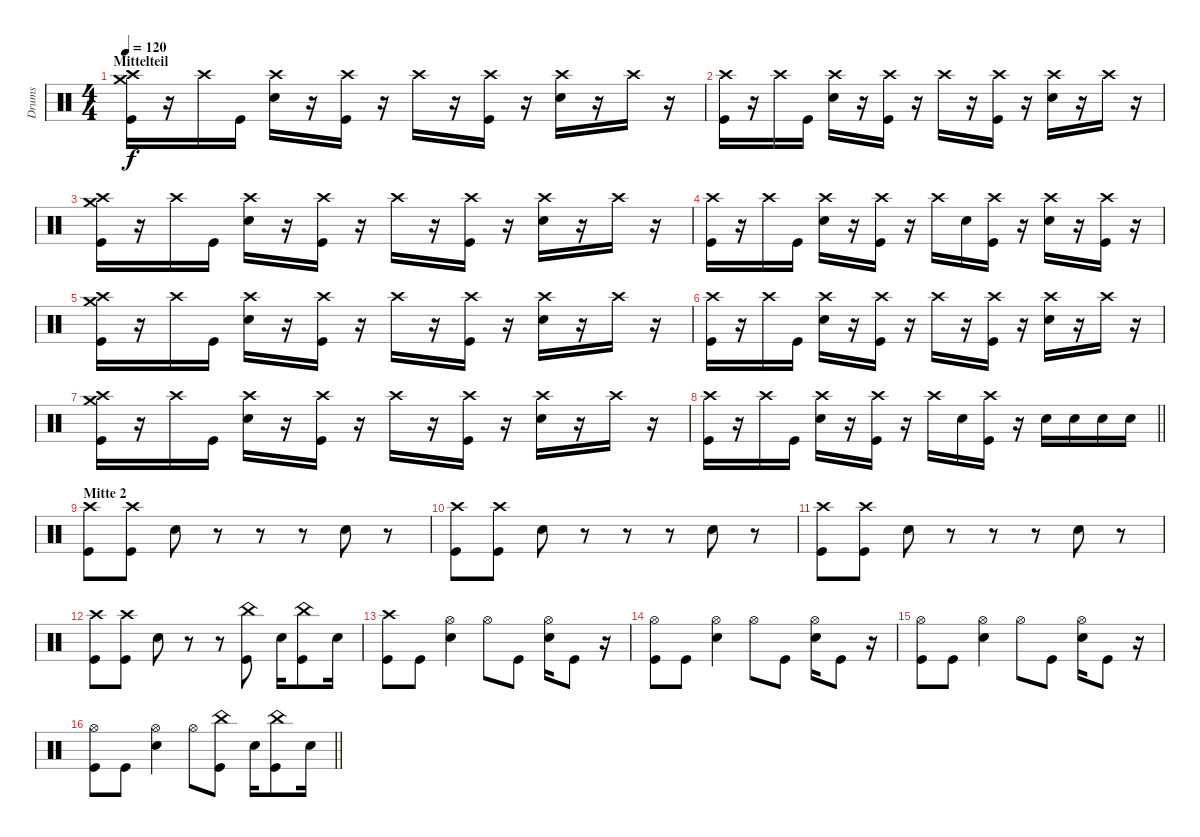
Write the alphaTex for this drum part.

\track ("Drums" "Drums") {instrument percussion}
\staff {score}
\articulation defaults
\ts (4 4)
\section ("" "Mittelteil")
\tempo 120
\clef neutral
\ks c
("Crash high (hit)" "Kick (hit)" "Crash medium (hit)").16{dy f} r.16 "Crash high (hit)".16 "Kick (hit)".16 ("Snare (hit) 2" "Crash high (hit)").16 r.16 ("Kick (hit)" "Crash high (hit)").16 r.16 "Crash high (hit)".16 r.16 ("Kick (hit)" "Crash high (hit)").16 r.16 ("Snare (hit) 2" "Crash high (hit)").16 r.16 "Crash high (hit)".16 r.16 |
("Crash high (hit)" "Kick (hit)").16 r.16 "Crash high (hit)".16 "Kick (hit)".16 ("Snare (hit) 2" "Crash high (hit)").16 r.16 ("Kick (hit)" "Crash high (hit)").16 r.16 "Crash high (hit)".16 r.16 ("Kick (hit)" "Crash high (hit)").16 r.16 ("Snare (hit) 2" "Crash high (hit)").16 r.16 "Crash high (hit)".16 r.16 |
("Crash high (hit)" "Kick (hit)" "Crash medium (hit)").16 r.16 "Crash high (hit)".16 "Kick (hit)".16 ("Snare (hit) 2" "Crash high (hit)").16 r.16 ("Kick (hit)" "Crash high (hit)").16 r.16 "Crash high (hit)".16 r.16 ("Kick (hit)" "Crash high (hit)").16 r.16 ("Snare (hit) 2" "Crash high (hit)").16 r.16 "Crash high (hit)".16 r.16 |
("Crash high (hit)" "Kick (hit)").16 r.16 "Crash high (hit)".16 "Kick (hit)".16 ("Snare (hit) 2" "Crash high (hit)").16 r.16 ("Kick (hit)" "Crash high (hit)").16 r.16 "Crash high (hit)".16 "Snare (hit) 2".16 ("Kick (hit)" "Crash high (hit)").16 r.16 ("Snare (hit) 2" "Crash high (hit)").16 r.16 ("Crash high (hit)" "Kick (hit)").16 r.16 |
("Crash high (hit)" "Kick (hit)" "Crash medium (hit)").16 r.16 "Crash high (hit)".16 "Kick (hit)".16 ("Snare (hit) 2" "Crash high (hit)").16 r.16 ("Kick (hit)" "Crash high (hit)").16 r.16 "Crash high (hit)".16 r.16 ("Kick (hit)" "Crash high (hit)").16 r.16 ("Snare (hit) 2" "Crash high (hit)").16 r.16 "Crash high (hit)".16 r.16 |
("Crash high (hit)" "Kick (hit)").16 r.16 "Crash high (hit)".16 "Kick (hit)".16 ("Snare (hit) 2" "Crash high (hit)").16 r.16 ("Kick (hit)" "Crash high (hit)").16 r.16 "Crash high (hit)".16 r.16 ("Kick (hit)" "Crash high (hit)").16 r.16 ("Snare (hit) 2" "Crash high (hit)").16 r.16 "Crash high (hit)".16 r.16 |
("Crash high (hit)" "Kick (hit)" "Crash medium (hit)").16 r.16 "Crash high (hit)".16 "Kick (hit)".16 ("Snare (hit) 2" "Crash high (hit)").16 r.16 ("Kick (hit)" "Crash high (hit)").16 r.16 "Crash high (hit)".16 r.16 ("Kick (hit)" "Crash high (hit)").16 r.16 ("Snare (hit) 2" "Crash high (hit)").16 r.16 "Crash high (hit)".16 r.16 |
\barLineRight lightlight
("Crash high (hit)" "Kick (hit)").16 r.16 "Crash high (hit)".16 "Kick (hit)".16 ("Snare (hit) 2" "Crash high (hit)").16 r.16 ("Kick (hit)" "Crash high (hit)").16 r.16 "Crash high (hit)".16 "Snare (hit) 2".16 ("Kick (hit)" "Crash high (hit)").16 r.16 "Snare (hit) 2".16 "Snare (hit) 2".16 "Snare (hit) 2".16 "Snare (hit) 2".16 |
\section ("" "Mitte 2")
("Crash high (hit)" "Kick (hit)").8 ("Crash high (hit)" "Kick (hit)").8 "Snare (hit) 2".8 r.8 r.8 r.8 "Snare (hit) 2".8 r.8 |
("Crash high (hit)" "Kick (hit)").8 ("Crash high (hit)" "Kick (hit)").8 "Snare (hit) 2".8 r.8 r.8 r.8 "Snare (hit) 2".8 r.8 |
("Crash high (hit)" "Kick (hit)").8 ("Crash high (hit)" "Kick (hit)").8 "Snare (hit) 2".8 r.8 r.8 r.8 "Snare (hit) 2".8 r.8 |
("Crash high (hit)" "Kick (hit)").8 ("Crash high (hit)" "Kick (hit)").8 "Snare (hit) 2".8 r.8 r.8 ("Kick (hit)" "China (hit)").8 "Snare (hit) 2".16 ("Kick (hit)" "China (hit)").8 "Snare (hit) 2".16 |
("Crash high (hit)" "Kick (hit)").8 "Kick (hit)".8 ("Hi-Hat (open)" "Snare (hit) 2").4 "Hi-Hat (open)".8 "Kick (hit)".8 ("Snare (hit) 2" "Hi-Hat (open)").16 "Kick (hit)".8 r.16 |
("Hi-Hat (open)" "Kick (hit)").8 "Kick (hit)".8 ("Hi-Hat (open)" "Snare (hit) 2").4 "Hi-Hat (open)".8 "Kick (hit)".8 ("Snare (hit) 2" "Hi-Hat (open)").16 "Kick (hit)".8 r.16 |
("Hi-Hat (open)" "Kick (hit)").8 "Kick (hit)".8 ("Hi-Hat (open)" "Snare (hit) 2").4 "Hi-Hat (open)".8 "Kick (hit)".8 ("Snare (hit) 2" "Hi-Hat (open)").16 "Kick (hit)".8 r.16 |
\barLineRight lightlight
("Hi-Hat (open)" "Kick (hit)").8 "Kick (hit)".8 ("Hi-Hat (open)" "Snare (hit) 2").4 "Hi-Hat (open)".8 ("Kick (hit)" "China (hit)").8 "Snare (hit) 2".16 ("Kick (hit)" "China (hit)").8 "Snare (hit) 2".16
